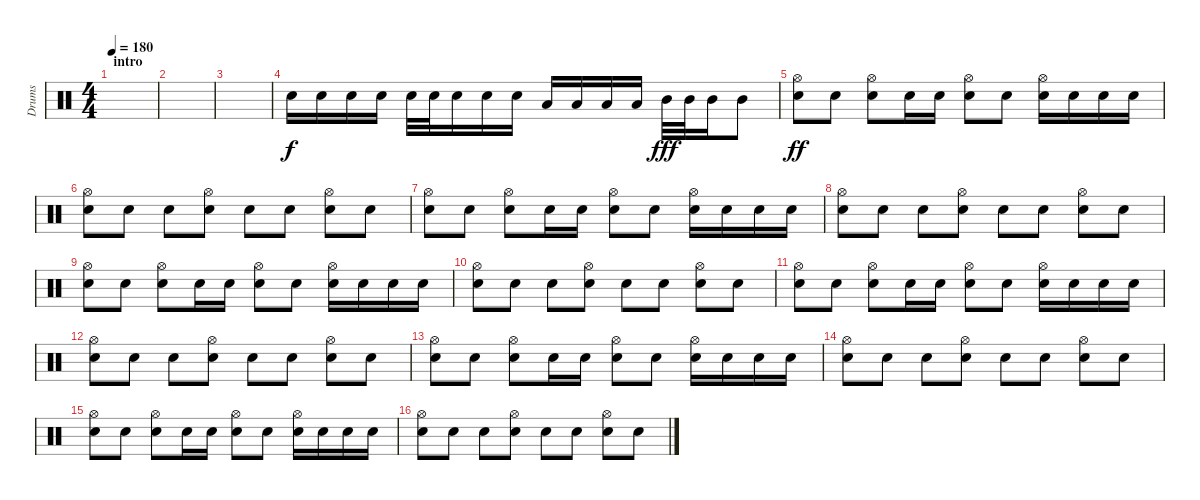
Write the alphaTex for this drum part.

\track ("Drums" "Drums") {instrument percussion}
\staff {score}
\articulation defaults
\ts (4 4)
\section ("" "intro")
\tempo 180
\clef neutral
\ks c
|
|
|
"Electric Snare (hit)".16 "Electric Snare (hit)".16 "Electric Snare (hit)".16 "Electric Snare (hit)".16 "Snare (hit) 2".32 "Snare (hit) 2".32 "Snare (hit) 2".16 "Snare (hit) 2".16 "Snare (hit) 2".16 "Low Tom (hit)".16 "Low Tom (hit)".16 "Low Tom (hit)".16 "Low Tom (hit)".16 "Mid Tom (hit)".32{dy fff} "Mid Tom (hit)".32 "Mid Tom (hit)".16 "Mid Tom (hit)".8 |
("Hi-Hat (open)" "Electric Snare (hit)").8{dy ff} "Snare (hit) 2".8 ("Hi-Hat (open)" "Electric Snare (hit)").8 "Snare (hit) 2".16 "Snare (hit) 2".16 ("Electric Snare (hit)" "Hi-Hat (open)").8 "Snare (hit) 2".8 ("Snare (hit) 2" "Hi-Hat (open)").16 "Snare (hit) 2".16 "Snare (hit) 2".16 "Snare (hit) 2".16 |
("Hi-Hat (open)" "Snare (hit) 2").8 "Snare (hit) 2".8 "Snare (hit) 2".8 ("Hi-Hat (open)" "Snare (hit) 2").8 "Snare (hit) 2".8 "Snare (hit) 2".8 ("Hi-Hat (open)" "Snare (hit) 2").8 "Snare (hit) 2".8 |
("Hi-Hat (open)" "Electric Snare (hit)").8 "Snare (hit) 2".8 ("Hi-Hat (open)" "Electric Snare (hit)").8 "Snare (hit) 2".16 "Snare (hit) 2".16 ("Electric Snare (hit)" "Hi-Hat (open)").8 "Snare (hit) 2".8 ("Snare (hit) 2" "Hi-Hat (open)").16 "Snare (hit) 2".16 "Snare (hit) 2".16 "Snare (hit) 2".16 |
("Hi-Hat (open)" "Snare (hit) 2").8 "Snare (hit) 2".8 "Snare (hit) 2".8 ("Hi-Hat (open)" "Snare (hit) 2").8 "Snare (hit) 2".8 "Snare (hit) 2".8 ("Hi-Hat (open)" "Snare (hit) 2").8 "Snare (hit) 2".8 |
("Hi-Hat (open)" "Electric Snare (hit)").8 "Snare (hit) 2".8 ("Hi-Hat (open)" "Electric Snare (hit)").8 "Snare (hit) 2".16 "Snare (hit) 2".16 ("Electric Snare (hit)" "Hi-Hat (open)").8 "Snare (hit) 2".8 ("Snare (hit) 2" "Hi-Hat (open)").16 "Snare (hit) 2".16 "Snare (hit) 2".16 "Snare (hit) 2".16 |
("Hi-Hat (open)" "Snare (hit) 2").8 "Snare (hit) 2".8 "Snare (hit) 2".8 ("Hi-Hat (open)" "Snare (hit) 2").8 "Snare (hit) 2".8 "Snare (hit) 2".8 ("Hi-Hat (open)" "Snare (hit) 2").8 "Snare (hit) 2".8 |
("Hi-Hat (open)" "Electric Snare (hit)").8 "Snare (hit) 2".8 ("Hi-Hat (open)" "Electric Snare (hit)").8 "Snare (hit) 2".16 "Snare (hit) 2".16 ("Electric Snare (hit)" "Hi-Hat (open)").8 "Snare (hit) 2".8 ("Snare (hit) 2" "Hi-Hat (open)").16 "Snare (hit) 2".16 "Snare (hit) 2".16 "Snare (hit) 2".16 |
("Hi-Hat (open)" "Snare (hit) 2").8 "Snare (hit) 2".8 "Snare (hit) 2".8 ("Hi-Hat (open)" "Snare (hit) 2").8 "Snare (hit) 2".8 "Snare (hit) 2".8 ("Hi-Hat (open)" "Snare (hit) 2").8 "Snare (hit) 2".8 |
("Hi-Hat (open)" "Electric Snare (hit)").8 "Snare (hit) 2".8 ("Hi-Hat (open)" "Electric Snare (hit)").8 "Snare (hit) 2".16 "Snare (hit) 2".16 ("Electric Snare (hit)" "Hi-Hat (open)").8 "Snare (hit) 2".8 ("Snare (hit) 2" "Hi-Hat (open)").16 "Snare (hit) 2".16 "Snare (hit) 2".16 "Snare (hit) 2".16 |
("Hi-Hat (open)" "Snare (hit) 2").8 "Snare (hit) 2".8 "Snare (hit) 2".8 ("Hi-Hat (open)" "Snare (hit) 2").8 "Snare (hit) 2".8 "Snare (hit) 2".8 ("Hi-Hat (open)" "Snare (hit) 2").8 "Snare (hit) 2".8 |
("Hi-Hat (open)" "Electric Snare (hit)").8 "Snare (hit) 2".8 ("Hi-Hat (open)" "Electric Snare (hit)").8 "Snare (hit) 2".16 "Snare (hit) 2".16 ("Electric Snare (hit)" "Hi-Hat (open)").8 "Snare (hit) 2".8 ("Snare (hit) 2" "Hi-Hat (open)").16 "Snare (hit) 2".16 "Snare (hit) 2".16 "Snare (hit) 2".16 |
("Hi-Hat (open)" "Snare (hit) 2").8 "Snare (hit) 2".8 "Snare (hit) 2".8 ("Hi-Hat (open)" "Snare (hit) 2").8 "Snare (hit) 2".8 "Snare (hit) 2".8 ("Hi-Hat (open)" "Snare (hit) 2").8 "Snare (hit) 2".8
